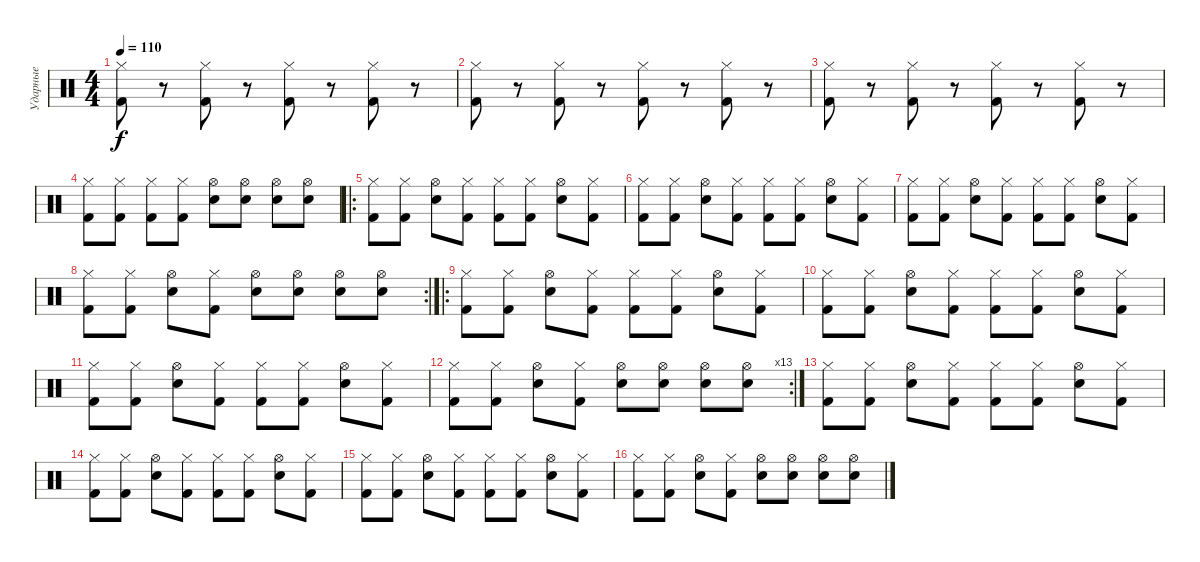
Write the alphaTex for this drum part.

\track ("Ударные" "Ударные") {instrument percussion}
\staff {score}
\articulation defaults
\ts (4 4)
\tempo 110
\clef neutral
\ks c
("Kick (hit) 2" "Hi-Hat (closed)").8{dy f} r.8 ("Hi-Hat (closed)" "Kick (hit) 2").8 r.8 ("Hi-Hat (closed)" "Kick (hit) 2").8 r.8 ("Kick (hit) 2" "Hi-Hat (closed)").8 r.8 |
("Kick (hit) 2" "Hi-Hat (closed)").8 r.8 ("Hi-Hat (closed)" "Kick (hit) 2").8 r.8 ("Hi-Hat (closed)" "Kick (hit) 2").8 r.8 ("Kick (hit) 2" "Hi-Hat (closed)").8 r.8 |
("Kick (hit) 2" "Hi-Hat (closed)").8 r.8 ("Hi-Hat (closed)" "Kick (hit) 2").8 r.8 ("Hi-Hat (closed)" "Kick (hit) 2").8 r.8 ("Kick (hit) 2" "Hi-Hat (closed)").8 r.8 |
("Kick (hit) 2" "Hi-Hat (closed)").8 ("Kick (hit) 2" "Hi-Hat (closed)").8 ("Kick (hit) 2" "Hi-Hat (closed)").8 ("Kick (hit) 2" "Hi-Hat (closed)").8 ("Hi-Hat (open)" "Electric Snare (hit)").8 ("Hi-Hat (open)" "Electric Snare (hit)").8 ("Electric Snare (hit)" "Hi-Hat (open)").8 ("Hi-Hat (open)" "Electric Snare (hit)").8 |
\ro
("Kick (hit) 2" "Hi-Hat (closed)").8 ("Kick (hit) 2" "Hi-Hat (closed)").8 ("Electric Snare (hit)" "Hi-Hat (open)").8 ("Kick (hit) 2" "Hi-Hat (closed)").8 ("Kick (hit) 2" "Hi-Hat (closed)").8 ("Kick (hit) 2" "Hi-Hat (closed)").8 ("Electric Snare (hit)" "Hi-Hat (open)").8 ("Kick (hit) 2" "Hi-Hat (closed)").8 |
("Kick (hit) 2" "Hi-Hat (closed)").8 ("Kick (hit) 2" "Hi-Hat (closed)").8 ("Electric Snare (hit)" "Hi-Hat (open)").8 ("Kick (hit) 2" "Hi-Hat (closed)").8 ("Kick (hit) 2" "Hi-Hat (closed)").8 ("Kick (hit) 2" "Hi-Hat (closed)").8 ("Electric Snare (hit)" "Hi-Hat (open)").8 ("Kick (hit) 2" "Hi-Hat (closed)").8 |
("Kick (hit) 2" "Hi-Hat (closed)").8 ("Kick (hit) 2" "Hi-Hat (closed)").8 ("Electric Snare (hit)" "Hi-Hat (open)").8 ("Kick (hit) 2" "Hi-Hat (closed)").8 ("Kick (hit) 2" "Hi-Hat (closed)").8 ("Kick (hit) 2" "Hi-Hat (closed)").8 ("Electric Snare (hit)" "Hi-Hat (open)").8 ("Kick (hit) 2" "Hi-Hat (closed)").8 |
\rc 2
("Kick (hit) 2" "Hi-Hat (closed)").8 ("Kick (hit) 2" "Hi-Hat (closed)").8 ("Electric Snare (hit)" "Hi-Hat (open)").8 ("Kick (hit) 2" "Hi-Hat (closed)").8 ("Electric Snare (hit)" "Hi-Hat (open)").8 ("Hi-Hat (open)" "Electric Snare (hit)").8 ("Electric Snare (hit)" "Hi-Hat (open)").8 ("Hi-Hat (open)" "Electric Snare (hit)").8 |
\ro
("Kick (hit) 2" "Hi-Hat (closed)").8 ("Kick (hit) 2" "Hi-Hat (closed)").8 ("Electric Snare (hit)" "Hi-Hat (open)").8 ("Kick (hit) 2" "Hi-Hat (closed)").8 ("Kick (hit) 2" "Hi-Hat (closed)").8 ("Kick (hit) 2" "Hi-Hat (closed)").8 ("Electric Snare (hit)" "Hi-Hat (open)").8 ("Kick (hit) 2" "Hi-Hat (closed)").8 |
("Kick (hit) 2" "Hi-Hat (closed)").8 ("Kick (hit) 2" "Hi-Hat (closed)").8 ("Electric Snare (hit)" "Hi-Hat (open)").8 ("Kick (hit) 2" "Hi-Hat (closed)").8 ("Kick (hit) 2" "Hi-Hat (closed)").8 ("Kick (hit) 2" "Hi-Hat (closed)").8 ("Electric Snare (hit)" "Hi-Hat (open)").8 ("Kick (hit) 2" "Hi-Hat (closed)").8 |
("Kick (hit) 2" "Hi-Hat (closed)").8 ("Kick (hit) 2" "Hi-Hat (closed)").8 ("Electric Snare (hit)" "Hi-Hat (open)").8 ("Kick (hit) 2" "Hi-Hat (closed)").8 ("Kick (hit) 2" "Hi-Hat (closed)").8 ("Kick (hit) 2" "Hi-Hat (closed)").8 ("Electric Snare (hit)" "Hi-Hat (open)").8 ("Kick (hit) 2" "Hi-Hat (closed)").8 |
\rc 13
("Kick (hit) 2" "Hi-Hat (closed)").8 ("Kick (hit) 2" "Hi-Hat (closed)").8 ("Electric Snare (hit)" "Hi-Hat (open)").8 ("Kick (hit) 2" "Hi-Hat (closed)").8 ("Electric Snare (hit)" "Hi-Hat (open)").8 ("Hi-Hat (open)" "Electric Snare (hit)").8 ("Electric Snare (hit)" "Hi-Hat (open)").8 ("Hi-Hat (open)" "Electric Snare (hit)").8 |
("Kick (hit) 2" "Hi-Hat (closed)").8 ("Kick (hit) 2" "Hi-Hat (closed)").8 ("Electric Snare (hit)" "Hi-Hat (open)").8 ("Kick (hit) 2" "Hi-Hat (closed)").8 ("Kick (hit) 2" "Hi-Hat (closed)").8 ("Kick (hit) 2" "Hi-Hat (closed)").8 ("Electric Snare (hit)" "Hi-Hat (open)").8 ("Kick (hit) 2" "Hi-Hat (closed)").8 |
("Kick (hit) 2" "Hi-Hat (closed)").8 ("Kick (hit) 2" "Hi-Hat (closed)").8 ("Electric Snare (hit)" "Hi-Hat (open)").8 ("Kick (hit) 2" "Hi-Hat (closed)").8 ("Kick (hit) 2" "Hi-Hat (closed)").8 ("Kick (hit) 2" "Hi-Hat (closed)").8 ("Electric Snare (hit)" "Hi-Hat (open)").8 ("Kick (hit) 2" "Hi-Hat (closed)").8 |
("Kick (hit) 2" "Hi-Hat (closed)").8 ("Kick (hit) 2" "Hi-Hat (closed)").8 ("Electric Snare (hit)" "Hi-Hat (open)").8 ("Kick (hit) 2" "Hi-Hat (closed)").8 ("Kick (hit) 2" "Hi-Hat (closed)").8 ("Kick (hit) 2" "Hi-Hat (closed)").8 ("Electric Snare (hit)" "Hi-Hat (open)").8 ("Kick (hit) 2" "Hi-Hat (closed)").8 |
("Kick (hit) 2" "Hi-Hat (closed)").8 ("Kick (hit) 2" "Hi-Hat (closed)").8 ("Electric Snare (hit)" "Hi-Hat (open)").8 ("Kick (hit) 2" "Hi-Hat (closed)").8 ("Electric Snare (hit)" "Hi-Hat (open)").8 ("Hi-Hat (open)" "Electric Snare (hit)").8 ("Electric Snare (hit)" "Hi-Hat (open)").8 ("Hi-Hat (open)" "Electric Snare (hit)").8
